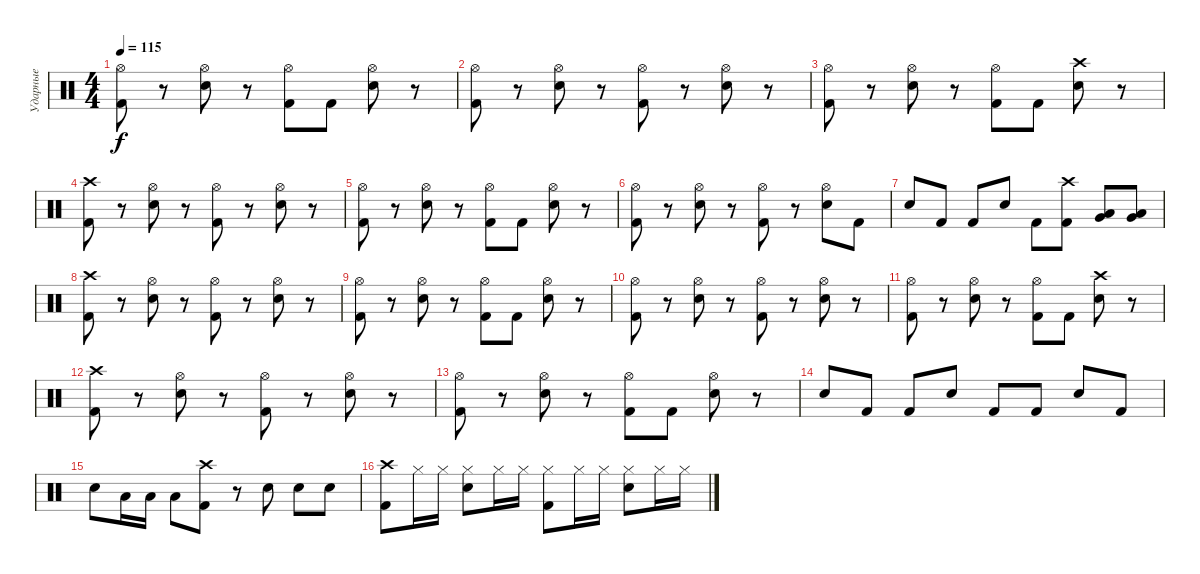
\track ("Ударные" "Ударные") {instrument percussion}
\staff {score}
\articulation defaults
\ts (4 4)
\tempo 115
\clef neutral
\ks c
("Kick (hit) 2" "Hi-Hat (open)").8{dy f} r.8 ("Hi-Hat (open)" "Electric Snare (hit)").8 r.8 ("Kick (hit) 2" "Hi-Hat (open)").8 "Kick (hit) 2".8 ("Hi-Hat (open)" "Electric Snare (hit)").8 r.8 |
("Kick (hit) 2" "Hi-Hat (open)").8 r.8 ("Hi-Hat (open)" "Electric Snare (hit)").8 r.8 ("Kick (hit) 2" "Hi-Hat (open)").8 r.8 ("Hi-Hat (open)" "Electric Snare (hit)").8 r.8 |
("Kick (hit) 2" "Hi-Hat (open)").8 r.8 ("Hi-Hat (open)" "Electric Snare (hit)").8 r.8 ("Kick (hit) 2" "Hi-Hat (open)").8 "Kick (hit) 2".8 ("Crash high (hit)" "Electric Snare (hit)").8 r.8 |
("Kick (hit) 2" "Crash high (hit)").8 r.8 ("Hi-Hat (open)" "Electric Snare (hit)").8 r.8 ("Kick (hit) 2" "Hi-Hat (open)").8 r.8 ("Hi-Hat (open)" "Electric Snare (hit)").8 r.8 |
("Kick (hit) 2" "Hi-Hat (open)").8 r.8 ("Hi-Hat (open)" "Electric Snare (hit)").8 r.8 ("Kick (hit) 2" "Hi-Hat (open)").8 "Kick (hit) 2".8 ("Hi-Hat (open)" "Electric Snare (hit)").8 r.8 |
("Kick (hit) 2" "Hi-Hat (open)").8 r.8 ("Hi-Hat (open)" "Electric Snare (hit)").8 r.8 ("Kick (hit) 2" "Hi-Hat (open)").8 r.8 ("Hi-Hat (open)" "Electric Snare (hit)").8 "Kick (hit) 2".8 |
"Electric Snare (hit)".8 "Kick (hit) 2".8 "Kick (hit) 2".8 "Electric Snare (hit)".8 "Kick (hit) 2".8 ("Kick (hit) 2" "Crash high (hit)").8 ("Low Tom (hit)" "Very Low Tom (hit)").8 ("Low Tom (hit)" "Very Low Tom (hit)").8 |
("Kick (hit) 2" "Crash high (hit)").8 r.8 ("Hi-Hat (open)" "Electric Snare (hit)").8 r.8 ("Kick (hit) 2" "Hi-Hat (open)").8 r.8 ("Hi-Hat (open)" "Electric Snare (hit)").8 r.8 |
("Kick (hit) 2" "Hi-Hat (open)").8 r.8 ("Hi-Hat (open)" "Electric Snare (hit)").8 r.8 ("Kick (hit) 2" "Hi-Hat (open)").8 "Kick (hit) 2".8 ("Hi-Hat (open)" "Electric Snare (hit)").8 r.8 |
("Kick (hit) 2" "Hi-Hat (open)").8 r.8 ("Hi-Hat (open)" "Electric Snare (hit)").8 r.8 ("Kick (hit) 2" "Hi-Hat (open)").8 r.8 ("Hi-Hat (open)" "Electric Snare (hit)").8 r.8 |
("Kick (hit) 2" "Hi-Hat (open)").8 r.8 ("Hi-Hat (open)" "Electric Snare (hit)").8 r.8 ("Kick (hit) 2" "Hi-Hat (open)").8 "Kick (hit) 2".8 ("Crash high (hit)" "Electric Snare (hit)").8 r.8 |
("Kick (hit) 2" "Crash high (hit)").8 r.8 ("Hi-Hat (open)" "Electric Snare (hit)").8 r.8 ("Kick (hit) 2" "Hi-Hat (open)").8 r.8 ("Hi-Hat (open)" "Electric Snare (hit)").8 r.8 |
("Kick (hit) 2" "Hi-Hat (open)").8 r.8 ("Hi-Hat (open)" "Electric Snare (hit)").8 r.8 ("Kick (hit) 2" "Hi-Hat (open)").8 "Kick (hit) 2".8 ("Hi-Hat (open)" "Electric Snare (hit)").8 r.8 |
"Electric Snare (hit)".8 "Kick (hit) 2".8 "Kick (hit) 2".8 "Electric Snare (hit)".8 "Kick (hit) 2".8 "Kick (hit) 2".8 "Electric Snare (hit)".8 "Kick (hit) 2".8 |
"Electric Snare (hit)".8 "Low Tom (hit)".16 "Low Tom (hit)".16 "Low Tom (hit)".8 ("Kick (hit) 2" "Crash high (hit)").8 r.8 "Electric Snare (hit)".8 "Electric Snare (hit)".8 "Electric Snare (hit)".8 |
("Kick (hit) 2" "Crash high (hit)").8 "Hi-Hat (closed)".16 "Hi-Hat (closed)".16 ("Hi-Hat (closed)" "Electric Snare (hit)").8 "Hi-Hat (closed)".16 "Hi-Hat (closed)".16 ("Kick (hit) 2" "Hi-Hat (closed)").8 "Hi-Hat (closed)".16 "Hi-Hat (closed)".16 ("Hi-Hat (closed)" "Electric Snare (hit)").8 "Hi-Hat (closed)".16 "Hi-Hat (closed)".16
